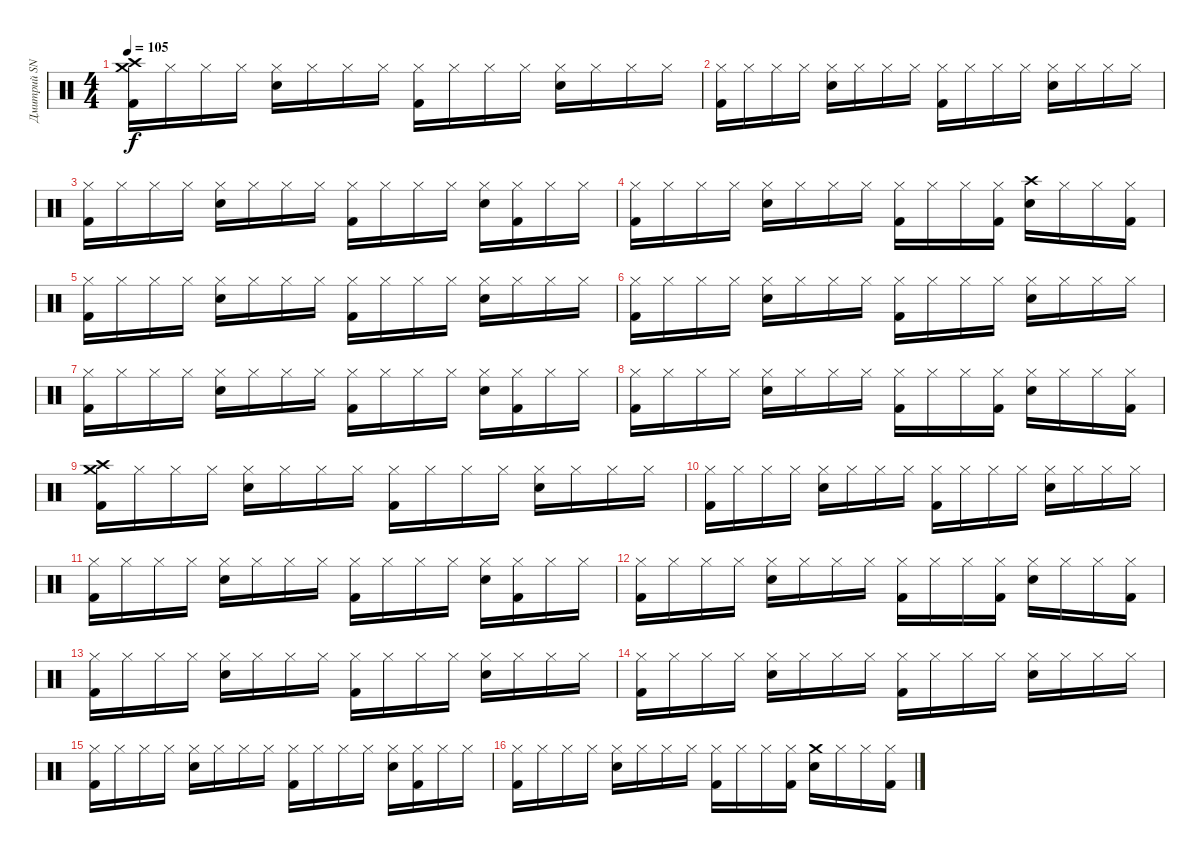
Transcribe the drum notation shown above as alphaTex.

\track ("Дмитрий SNAKE Хакимов (ударные)" "Дмитрий SN") {instrument percussion}
\staff {score}
\articulation defaults
\ts (4 4)
\tempo 105
\clef neutral
\ks c
("Crash high (hit)" "Crash medium (hit)" "Kick (hit) 2").16{dy f} "Hi-Hat (closed)".16 "Hi-Hat (closed)".16 "Hi-Hat (closed)".16 ("Hi-Hat (closed)" "Snare (hit) 2").16 "Hi-Hat (closed)".16 "Hi-Hat (closed)".16 "Hi-Hat (closed)".16 ("Hi-Hat (closed)" "Kick (hit) 2").16 "Hi-Hat (closed)".16 "Hi-Hat (closed)".16 "Hi-Hat (closed)".16 ("Hi-Hat (closed)" "Snare (hit) 2").16 "Hi-Hat (closed)".16 "Hi-Hat (closed)".16 "Hi-Hat (closed)".16 |
("Hi-Hat (closed)" "Kick (hit) 2").16 "Hi-Hat (closed)".16 "Hi-Hat (closed)".16 "Hi-Hat (closed)".16 ("Hi-Hat (closed)" "Snare (hit) 2").16 "Hi-Hat (closed)".16 "Hi-Hat (closed)".16 "Hi-Hat (closed)".16 ("Hi-Hat (closed)" "Kick (hit) 2").16 "Hi-Hat (closed)".16 "Hi-Hat (closed)".16 "Hi-Hat (closed)".16 ("Hi-Hat (closed)" "Snare (hit) 2").16 "Hi-Hat (closed)".16 "Hi-Hat (closed)".16 "Hi-Hat (closed)".16 |
("Hi-Hat (closed)" "Kick (hit) 2").16 "Hi-Hat (closed)".16 "Hi-Hat (closed)".16 "Hi-Hat (closed)".16 ("Hi-Hat (closed)" "Snare (hit) 2").16 "Hi-Hat (closed)".16 "Hi-Hat (closed)".16 "Hi-Hat (closed)".16 ("Hi-Hat (closed)" "Kick (hit) 2").16 "Hi-Hat (closed)".16 "Hi-Hat (closed)".16 "Hi-Hat (closed)".16 ("Hi-Hat (closed)" "Snare (hit) 2").16 ("Hi-Hat (closed)" "Kick (hit) 2").16 "Hi-Hat (closed)".16 "Hi-Hat (closed)".16 |
("Hi-Hat (closed)" "Kick (hit) 2").16 "Hi-Hat (closed)".16 "Hi-Hat (closed)".16 "Hi-Hat (closed)".16 ("Hi-Hat (closed)" "Snare (hit) 2").16 "Hi-Hat (closed)".16 "Hi-Hat (closed)".16 "Hi-Hat (closed)".16 ("Hi-Hat (closed)" "Kick (hit) 2").16 "Hi-Hat (closed)".16 "Hi-Hat (closed)".16 ("Hi-Hat (closed)" "Kick (hit) 2").16 ("Crash high (hit)" "Snare (hit) 2").16 "Hi-Hat (closed)".16 "Hi-Hat (closed)".16 ("Hi-Hat (closed)" "Kick (hit) 2").16 |
("Hi-Hat (closed)" "Kick (hit) 2").16 "Hi-Hat (closed)".16 "Hi-Hat (closed)".16 "Hi-Hat (closed)".16 ("Hi-Hat (closed)" "Snare (hit) 2").16 "Hi-Hat (closed)".16 "Hi-Hat (closed)".16 "Hi-Hat (closed)".16 ("Hi-Hat (closed)" "Kick (hit) 2").16 "Hi-Hat (closed)".16 "Hi-Hat (closed)".16 "Hi-Hat (closed)".16 ("Hi-Hat (closed)" "Snare (hit) 2").16 "Hi-Hat (closed)".16 "Hi-Hat (closed)".16 "Hi-Hat (closed)".16 |
("Hi-Hat (closed)" "Kick (hit) 2").16 "Hi-Hat (closed)".16 "Hi-Hat (closed)".16 "Hi-Hat (closed)".16 ("Hi-Hat (closed)" "Snare (hit) 2").16 "Hi-Hat (closed)".16 "Hi-Hat (closed)".16 "Hi-Hat (closed)".16 ("Hi-Hat (closed)" "Kick (hit) 2").16 "Hi-Hat (closed)".16 "Hi-Hat (closed)".16 "Hi-Hat (closed)".16 ("Hi-Hat (closed)" "Snare (hit) 2").16 "Hi-Hat (closed)".16 "Hi-Hat (closed)".16 "Hi-Hat (closed)".16 |
("Hi-Hat (closed)" "Kick (hit) 2").16 "Hi-Hat (closed)".16 "Hi-Hat (closed)".16 "Hi-Hat (closed)".16 ("Hi-Hat (closed)" "Snare (hit) 2").16 "Hi-Hat (closed)".16 "Hi-Hat (closed)".16 "Hi-Hat (closed)".16 ("Hi-Hat (closed)" "Kick (hit) 2").16 "Hi-Hat (closed)".16 "Hi-Hat (closed)".16 "Hi-Hat (closed)".16 ("Hi-Hat (closed)" "Snare (hit) 2").16 ("Hi-Hat (closed)" "Kick (hit) 2").16 "Hi-Hat (closed)".16 "Hi-Hat (closed)".16 |
("Hi-Hat (closed)" "Kick (hit) 2").16 "Hi-Hat (closed)".16 "Hi-Hat (closed)".16 "Hi-Hat (closed)".16 ("Hi-Hat (closed)" "Snare (hit) 2").16 "Hi-Hat (closed)".16 "Hi-Hat (closed)".16 "Hi-Hat (closed)".16 ("Hi-Hat (closed)" "Kick (hit) 2").16 "Hi-Hat (closed)".16 "Hi-Hat (closed)".16 ("Hi-Hat (closed)" "Kick (hit) 2").16 ("Hi-Hat (closed)" "Snare (hit) 2").16 "Hi-Hat (closed)".16 "Hi-Hat (closed)".16 ("Hi-Hat (closed)" "Kick (hit) 2").16 |
("Crash high (hit)" "Crash medium (hit)" "Kick (hit) 2").16 "Hi-Hat (closed)".16 "Hi-Hat (closed)".16 "Hi-Hat (closed)".16 ("Hi-Hat (closed)" "Snare (hit) 2").16 "Hi-Hat (closed)".16 "Hi-Hat (closed)".16 "Hi-Hat (closed)".16 ("Hi-Hat (closed)" "Kick (hit) 2").16 "Hi-Hat (closed)".16 "Hi-Hat (closed)".16 "Hi-Hat (closed)".16 ("Hi-Hat (closed)" "Snare (hit) 2").16 "Hi-Hat (closed)".16 "Hi-Hat (closed)".16 "Hi-Hat (closed)".16 |
("Hi-Hat (closed)" "Kick (hit) 2").16 "Hi-Hat (closed)".16 "Hi-Hat (closed)".16 "Hi-Hat (closed)".16 ("Hi-Hat (closed)" "Snare (hit) 2").16 "Hi-Hat (closed)".16 "Hi-Hat (closed)".16 "Hi-Hat (closed)".16 ("Hi-Hat (closed)" "Kick (hit) 2").16 "Hi-Hat (closed)".16 "Hi-Hat (closed)".16 "Hi-Hat (closed)".16 ("Hi-Hat (closed)" "Snare (hit) 2").16 "Hi-Hat (closed)".16 "Hi-Hat (closed)".16 "Hi-Hat (closed)".16 |
("Hi-Hat (closed)" "Kick (hit) 2").16 "Hi-Hat (closed)".16 "Hi-Hat (closed)".16 "Hi-Hat (closed)".16 ("Hi-Hat (closed)" "Snare (hit) 2").16 "Hi-Hat (closed)".16 "Hi-Hat (closed)".16 "Hi-Hat (closed)".16 ("Hi-Hat (closed)" "Kick (hit) 2").16 "Hi-Hat (closed)".16 "Hi-Hat (closed)".16 "Hi-Hat (closed)".16 ("Hi-Hat (closed)" "Snare (hit) 2").16 ("Hi-Hat (closed)" "Kick (hit) 2").16 "Hi-Hat (closed)".16 "Hi-Hat (closed)".16 |
("Hi-Hat (closed)" "Kick (hit) 2").16 "Hi-Hat (closed)".16 "Hi-Hat (closed)".16 "Hi-Hat (closed)".16 ("Hi-Hat (closed)" "Snare (hit) 2").16 "Hi-Hat (closed)".16 "Hi-Hat (closed)".16 "Hi-Hat (closed)".16 ("Hi-Hat (closed)" "Kick (hit) 2").16 "Hi-Hat (closed)".16 "Hi-Hat (closed)".16 ("Hi-Hat (closed)" "Kick (hit) 2").16 ("Hi-Hat (closed)" "Snare (hit) 2").16 "Hi-Hat (closed)".16 "Hi-Hat (closed)".16 ("Hi-Hat (closed)" "Kick (hit) 2").16 |
("Hi-Hat (closed)" "Kick (hit) 2").16 "Hi-Hat (closed)".16 "Hi-Hat (closed)".16 "Hi-Hat (closed)".16 ("Hi-Hat (closed)" "Snare (hit) 2").16 "Hi-Hat (closed)".16 "Hi-Hat (closed)".16 "Hi-Hat (closed)".16 ("Hi-Hat (closed)" "Kick (hit) 2").16 "Hi-Hat (closed)".16 "Hi-Hat (closed)".16 "Hi-Hat (closed)".16 ("Hi-Hat (closed)" "Snare (hit) 2").16 "Hi-Hat (closed)".16 "Hi-Hat (closed)".16 "Hi-Hat (closed)".16 |
("Hi-Hat (closed)" "Kick (hit) 2").16 "Hi-Hat (closed)".16 "Hi-Hat (closed)".16 "Hi-Hat (closed)".16 ("Hi-Hat (closed)" "Snare (hit) 2").16 "Hi-Hat (closed)".16 "Hi-Hat (closed)".16 "Hi-Hat (closed)".16 ("Hi-Hat (closed)" "Kick (hit) 2").16 "Hi-Hat (closed)".16 "Hi-Hat (closed)".16 "Hi-Hat (closed)".16 ("Hi-Hat (closed)" "Snare (hit) 2").16 "Hi-Hat (closed)".16 "Hi-Hat (closed)".16 "Hi-Hat (closed)".16 |
("Hi-Hat (closed)" "Kick (hit) 2").16 "Hi-Hat (closed)".16 "Hi-Hat (closed)".16 "Hi-Hat (closed)".16 ("Hi-Hat (closed)" "Snare (hit) 2").16 "Hi-Hat (closed)".16 "Hi-Hat (closed)".16 "Hi-Hat (closed)".16 ("Hi-Hat (closed)" "Kick (hit) 2").16 "Hi-Hat (closed)".16 "Hi-Hat (closed)".16 "Hi-Hat (closed)".16 ("Hi-Hat (closed)" "Snare (hit) 2").16 ("Hi-Hat (closed)" "Kick (hit) 2").16 "Hi-Hat (closed)".16 "Hi-Hat (closed)".16 |
("Hi-Hat (closed)" "Kick (hit) 2").16 "Hi-Hat (closed)".16 "Hi-Hat (closed)".16 "Hi-Hat (closed)".16 ("Hi-Hat (closed)" "Snare (hit) 2").16 "Hi-Hat (closed)".16 "Hi-Hat (closed)".16 "Hi-Hat (closed)".16 ("Hi-Hat (closed)" "Kick (hit) 2").16 "Hi-Hat (closed)".16 "Hi-Hat (closed)".16 ("Hi-Hat (closed)" "Kick (hit) 2").16 ("Crash medium (hit)" "Snare (hit) 2").16 "Hi-Hat (closed)".16 "Hi-Hat (closed)".16 ("Hi-Hat (closed)" "Kick (hit) 2").16
